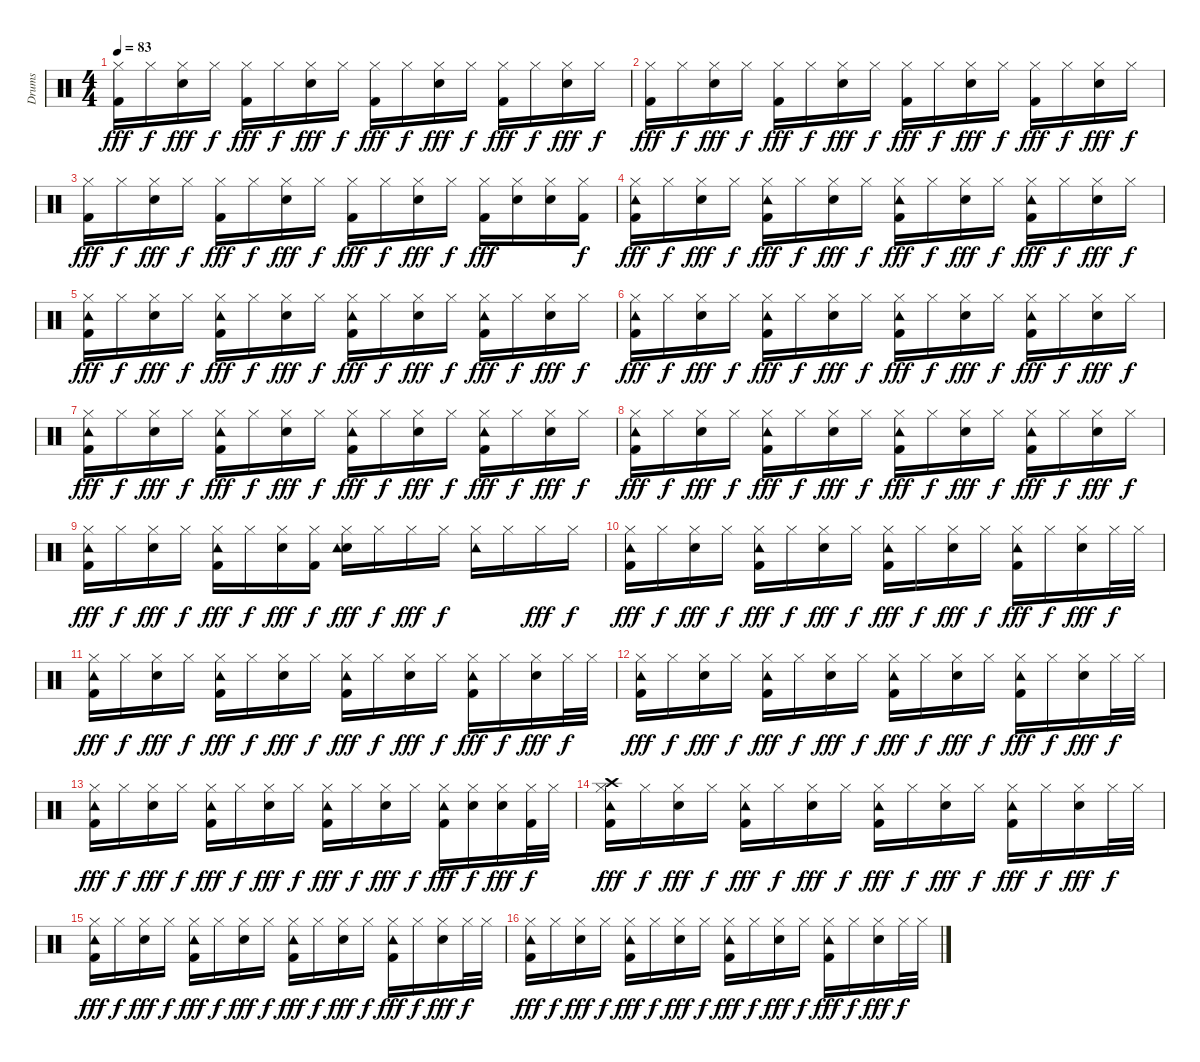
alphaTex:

\track ("Drums" "Drums") {instrument percussion}
\staff {score}
\articulation defaults
\ts (4 4)
\tempo 83
\clef neutral
\ks c
("Hi-Hat (closed)" "Kick (hit) 2").16{dy fff} "Hi-Hat (closed)".16{dy f} ("Hi-Hat (closed)" "Electric Snare (hit)").16{dy fff} "Hi-Hat (closed)".16{dy f} ("Hi-Hat (closed)" "Kick (hit) 2").16{dy fff} "Hi-Hat (closed)".16{dy f} ("Hi-Hat (closed)" "Electric Snare (hit)").16{dy fff} "Hi-Hat (closed)".16{dy f} ("Hi-Hat (closed)" "Kick (hit) 2").16{dy fff} "Hi-Hat (closed)".16{dy f} ("Hi-Hat (closed)" "Electric Snare (hit)").16{dy fff} "Hi-Hat (closed)".16{dy f} ("Hi-Hat (closed)" "Kick (hit) 2").16{dy fff} "Hi-Hat (closed)".16{dy f} ("Hi-Hat (closed)" "Electric Snare (hit)").16{dy fff} "Hi-Hat (closed)".16{dy f} |
("Hi-Hat (closed)" "Kick (hit) 2").16{dy fff} "Hi-Hat (closed)".16{dy f} ("Hi-Hat (closed)" "Electric Snare (hit)").16{dy fff} "Hi-Hat (closed)".16{dy f} ("Hi-Hat (closed)" "Kick (hit) 2").16{dy fff} "Hi-Hat (closed)".16{dy f} ("Hi-Hat (closed)" "Electric Snare (hit)").16{dy fff} "Hi-Hat (closed)".16{dy f} ("Hi-Hat (closed)" "Kick (hit) 2").16{dy fff} "Hi-Hat (closed)".16{dy f} ("Hi-Hat (closed)" "Electric Snare (hit)").16{dy fff} "Hi-Hat (closed)".16{dy f} ("Hi-Hat (closed)" "Kick (hit) 2").16{dy fff} "Hi-Hat (closed)".16{dy f} ("Hi-Hat (closed)" "Electric Snare (hit)").16{dy fff} "Hi-Hat (closed)".16{dy f} |
("Hi-Hat (closed)" "Kick (hit) 2").16{dy fff} "Hi-Hat (closed)".16{dy f} ("Hi-Hat (closed)" "Electric Snare (hit)").16{dy fff} "Hi-Hat (closed)".16{dy f} ("Hi-Hat (closed)" "Kick (hit) 2").16{dy fff} "Hi-Hat (closed)".16{dy f} ("Hi-Hat (closed)" "Electric Snare (hit)").16{dy fff} "Hi-Hat (closed)".16{dy f} ("Hi-Hat (closed)" "Kick (hit) 2").16{dy fff} "Hi-Hat (closed)".16{dy f} ("Hi-Hat (closed)" "Electric Snare (hit)").16{dy fff} "Hi-Hat (closed)".16{dy f} ("Hi-Hat (closed)" "Kick (hit) 2").16{dy fff} ("Hi-Hat (closed)" "Electric Snare (hit)").16 ("Hi-Hat (closed)" "Electric Snare (hit)").16 ("Hi-Hat (closed)" "Kick (hit) 2").16{dy f} |
("Hi-Hat (closed)" "Kick (hit) 2" "Tambourine (hit)").16{dy fff} "Hi-Hat (closed)".16{dy f} ("Hi-Hat (closed)" "Electric Snare (hit)").16{dy fff} "Hi-Hat (closed)".16{dy f} ("Hi-Hat (closed)" "Kick (hit) 2" "Tambourine (hit)").16{dy fff} "Hi-Hat (closed)".16{dy f} ("Hi-Hat (closed)" "Electric Snare (hit)").16{dy fff} "Hi-Hat (closed)".16{dy f} ("Hi-Hat (closed)" "Kick (hit) 2" "Tambourine (hit)").16{dy fff} "Hi-Hat (closed)".16{dy f} ("Hi-Hat (closed)" "Electric Snare (hit)").16{dy fff} "Hi-Hat (closed)".16{dy f} ("Hi-Hat (closed)" "Kick (hit) 2" "Tambourine (hit)").16{dy fff} "Hi-Hat (closed)".16{dy f} ("Hi-Hat (closed)" "Electric Snare (hit)").16{dy fff} "Hi-Hat (closed)".16{dy f} |
("Hi-Hat (closed)" "Kick (hit) 2" "Tambourine (hit)").16{dy fff} "Hi-Hat (closed)".16{dy f} ("Hi-Hat (closed)" "Electric Snare (hit)").16{dy fff} "Hi-Hat (closed)".16{dy f} ("Hi-Hat (closed)" "Kick (hit) 2" "Tambourine (hit)").16{dy fff} "Hi-Hat (closed)".16{dy f} ("Hi-Hat (closed)" "Electric Snare (hit)").16{dy fff} "Hi-Hat (closed)".16{dy f} ("Hi-Hat (closed)" "Kick (hit) 2" "Tambourine (hit)").16{dy fff} "Hi-Hat (closed)".16{dy f} ("Hi-Hat (closed)" "Electric Snare (hit)").16{dy fff} "Hi-Hat (closed)".16{dy f} ("Hi-Hat (closed)" "Kick (hit) 2" "Tambourine (hit)").16{dy fff} "Hi-Hat (closed)".16{dy f} ("Hi-Hat (closed)" "Electric Snare (hit)").16{dy fff} "Hi-Hat (closed)".16{dy f} |
("Hi-Hat (closed)" "Kick (hit) 2" "Tambourine (hit)").16{dy fff} "Hi-Hat (closed)".16{dy f} ("Hi-Hat (closed)" "Electric Snare (hit)").16{dy fff} "Hi-Hat (closed)".16{dy f} ("Hi-Hat (closed)" "Kick (hit) 2" "Tambourine (hit)").16{dy fff} "Hi-Hat (closed)".16{dy f} ("Hi-Hat (closed)" "Electric Snare (hit)").16{dy fff} "Hi-Hat (closed)".16{dy f} ("Hi-Hat (closed)" "Kick (hit) 2" "Tambourine (hit)").16{dy fff} "Hi-Hat (closed)".16{dy f} ("Hi-Hat (closed)" "Electric Snare (hit)").16{dy fff} "Hi-Hat (closed)".16{dy f} ("Hi-Hat (closed)" "Kick (hit) 2" "Tambourine (hit)").16{dy fff} "Hi-Hat (closed)".16{dy f} ("Hi-Hat (closed)" "Electric Snare (hit)").16{dy fff} "Hi-Hat (closed)".16{dy f} |
("Hi-Hat (closed)" "Kick (hit) 2" "Tambourine (hit)").16{dy fff} "Hi-Hat (closed)".16{dy f} ("Hi-Hat (closed)" "Electric Snare (hit)").16{dy fff} "Hi-Hat (closed)".16{dy f} ("Hi-Hat (closed)" "Kick (hit) 2" "Tambourine (hit)").16{dy fff} "Hi-Hat (closed)".16{dy f} ("Hi-Hat (closed)" "Electric Snare (hit)").16{dy fff} "Hi-Hat (closed)".16{dy f} ("Hi-Hat (closed)" "Kick (hit) 2" "Tambourine (hit)").16{dy fff} "Hi-Hat (closed)".16{dy f} ("Hi-Hat (closed)" "Electric Snare (hit)").16{dy fff} "Hi-Hat (closed)".16{dy f} ("Hi-Hat (closed)" "Kick (hit) 2" "Tambourine (hit)").16{dy fff} "Hi-Hat (closed)".16{dy f} ("Hi-Hat (closed)" "Electric Snare (hit)").16{dy fff} "Hi-Hat (closed)".16{dy f} |
("Hi-Hat (closed)" "Kick (hit) 2" "Tambourine (hit)").16{dy fff} "Hi-Hat (closed)".16{dy f} ("Hi-Hat (closed)" "Electric Snare (hit)").16{dy fff} "Hi-Hat (closed)".16{dy f} ("Hi-Hat (closed)" "Kick (hit) 2" "Tambourine (hit)").16{dy fff} "Hi-Hat (closed)".16{dy f} ("Hi-Hat (closed)" "Electric Snare (hit)").16{dy fff} "Hi-Hat (closed)".16{dy f} ("Hi-Hat (closed)" "Kick (hit) 2" "Tambourine (hit)").16{dy fff} "Hi-Hat (closed)".16{dy f} ("Hi-Hat (closed)" "Electric Snare (hit)").16{dy fff} "Hi-Hat (closed)".16{dy f} ("Hi-Hat (closed)" "Kick (hit) 2" "Tambourine (hit)").16{dy fff} "Hi-Hat (closed)".16{dy f} ("Hi-Hat (closed)" "Electric Snare (hit)").16{dy fff} "Hi-Hat (closed)".16{dy f} |
("Hi-Hat (closed)" "Kick (hit) 2" "Tambourine (hit)").16{dy fff} "Hi-Hat (closed)".16{dy f} ("Hi-Hat (closed)" "Electric Snare (hit)").16{dy fff} "Hi-Hat (closed)".16{dy f} ("Hi-Hat (closed)" "Kick (hit) 2" "Tambourine (hit)").16{dy fff} "Hi-Hat (closed)".16{dy f} ("Hi-Hat (closed)" "Electric Snare (hit)").16{dy fff} ("Hi-Hat (closed)" "Kick (hit) 2").16{dy f} ("Hi-Hat (closed)" "Electric Snare (hit)" "Tambourine (hit)").16{dy fff} "Hi-Hat (closed)".16{dy f} "Hi-Hat (closed)".16{dy fff} "Hi-Hat (closed)".16{dy f} ("Hi-Hat (closed)" "Tambourine (hit)").16 "Hi-Hat (closed)".16 "Hi-Hat (closed)".16{dy fff} "Hi-Hat (closed)".16{dy f} |
("Hi-Hat (closed)" "Kick (hit) 2" "Tambourine (hit)").16{dy fff} "Hi-Hat (closed)".16{dy f} ("Hi-Hat (closed)" "Electric Snare (hit)").16{dy fff} "Hi-Hat (closed)".16{dy f} ("Hi-Hat (closed)" "Kick (hit) 2" "Tambourine (hit)").16{dy fff} "Hi-Hat (closed)".16{dy f} ("Hi-Hat (closed)" "Electric Snare (hit)").16{dy fff} "Hi-Hat (closed)".16{dy f} ("Hi-Hat (closed)" "Kick (hit) 2" "Tambourine (hit)").16{dy fff} "Hi-Hat (closed)".16{dy f} ("Hi-Hat (closed)" "Electric Snare (hit)").16{dy fff} "Hi-Hat (closed)".16{dy f} ("Hi-Hat (closed)" "Kick (hit) 2" "Tambourine (hit)").16{dy fff} "Hi-Hat (closed)".16{dy f} ("Hi-Hat (closed)" "Electric Snare (hit)").16{dy fff} "Hi-Hat (closed)".32{dy f} "Hi-Hat (closed)".32 |
("Hi-Hat (closed)" "Kick (hit) 2" "Tambourine (hit)").16{dy fff} "Hi-Hat (closed)".16{dy f} ("Hi-Hat (closed)" "Electric Snare (hit)").16{dy fff} "Hi-Hat (closed)".16{dy f} ("Hi-Hat (closed)" "Kick (hit) 2" "Tambourine (hit)").16{dy fff} "Hi-Hat (closed)".16{dy f} ("Hi-Hat (closed)" "Electric Snare (hit)").16{dy fff} "Hi-Hat (closed)".16{dy f} ("Hi-Hat (closed)" "Kick (hit) 2" "Tambourine (hit)").16{dy fff} "Hi-Hat (closed)".16{dy f} ("Hi-Hat (closed)" "Electric Snare (hit)").16{dy fff} "Hi-Hat (closed)".16{dy f} ("Hi-Hat (closed)" "Kick (hit) 2" "Tambourine (hit)").16{dy fff} "Hi-Hat (closed)".16{dy f} ("Hi-Hat (closed)" "Electric Snare (hit)").16{dy fff} "Hi-Hat (closed)".32{dy f} "Hi-Hat (closed)".32 |
("Hi-Hat (closed)" "Kick (hit) 2" "Tambourine (hit)").16{dy fff} "Hi-Hat (closed)".16{dy f} ("Hi-Hat (closed)" "Electric Snare (hit)").16{dy fff} "Hi-Hat (closed)".16{dy f} ("Hi-Hat (closed)" "Kick (hit) 2" "Tambourine (hit)").16{dy fff} "Hi-Hat (closed)".16{dy f} ("Hi-Hat (closed)" "Electric Snare (hit)").16{dy fff} "Hi-Hat (closed)".16{dy f} ("Hi-Hat (closed)" "Kick (hit) 2" "Tambourine (hit)").16{dy fff} "Hi-Hat (closed)".16{dy f} ("Hi-Hat (closed)" "Electric Snare (hit)").16{dy fff} "Hi-Hat (closed)".16{dy f} ("Hi-Hat (closed)" "Kick (hit) 2" "Tambourine (hit)").16{dy fff} "Hi-Hat (closed)".16{dy f} ("Hi-Hat (closed)" "Electric Snare (hit)").16{dy fff} "Hi-Hat (closed)".32{dy f} "Hi-Hat (closed)".32 |
("Hi-Hat (closed)" "Kick (hit) 2" "Tambourine (hit)").16{dy fff} "Hi-Hat (closed)".16{dy f} ("Hi-Hat (closed)" "Electric Snare (hit)").16{dy fff} "Hi-Hat (closed)".16{dy f} ("Hi-Hat (closed)" "Kick (hit) 2" "Tambourine (hit)").16{dy fff} "Hi-Hat (closed)".16{dy f} ("Hi-Hat (closed)" "Electric Snare (hit)").16{dy fff} "Hi-Hat (closed)".16{dy f} ("Hi-Hat (closed)" "Kick (hit) 2" "Tambourine (hit)").16{dy fff} "Hi-Hat (closed)".16{dy f} ("Hi-Hat (closed)" "Electric Snare (hit)").16{dy fff} "Hi-Hat (closed)".16{dy f} ("Hi-Hat (closed)" "Kick (hit) 2" "Tambourine (hit)").16{dy fff} ("Hi-Hat (closed)" "Electric Snare (hit)").16{dy f} ("Hi-Hat (closed)" "Electric Snare (hit)").16{dy fff} ("Hi-Hat (closed)" "Kick (hit) 2").32{dy f} "Hi-Hat (closed)".32 |
("Hi-Hat (closed)" "Kick (hit) 2" "Tambourine (hit)" "Crash high (hit)").16{dy fff} "Hi-Hat (closed)".16{dy f} ("Hi-Hat (closed)" "Electric Snare (hit)").16{dy fff} "Hi-Hat (closed)".16{dy f} ("Hi-Hat (closed)" "Kick (hit) 2" "Tambourine (hit)").16{dy fff} "Hi-Hat (closed)".16{dy f} ("Hi-Hat (closed)" "Electric Snare (hit)").16{dy fff} "Hi-Hat (closed)".16{dy f} ("Hi-Hat (closed)" "Kick (hit) 2" "Tambourine (hit)").16{dy fff} "Hi-Hat (closed)".16{dy f} ("Hi-Hat (closed)" "Electric Snare (hit)").16{dy fff} "Hi-Hat (closed)".16{dy f} ("Hi-Hat (closed)" "Kick (hit) 2" "Tambourine (hit)").16{dy fff} "Hi-Hat (closed)".16{dy f} ("Hi-Hat (closed)" "Electric Snare (hit)").16{dy fff} "Hi-Hat (closed)".32{dy f} "Hi-Hat (closed)".32 |
("Hi-Hat (closed)" "Kick (hit) 2" "Tambourine (hit)").16{dy fff} "Hi-Hat (closed)".16{dy f} ("Hi-Hat (closed)" "Electric Snare (hit)").16{dy fff} "Hi-Hat (closed)".16{dy f} ("Hi-Hat (closed)" "Kick (hit) 2" "Tambourine (hit)").16{dy fff} "Hi-Hat (closed)".16{dy f} ("Hi-Hat (closed)" "Electric Snare (hit)").16{dy fff} "Hi-Hat (closed)".16{dy f} ("Hi-Hat (closed)" "Kick (hit) 2" "Tambourine (hit)").16{dy fff} "Hi-Hat (closed)".16{dy f} ("Hi-Hat (closed)" "Electric Snare (hit)").16{dy fff} "Hi-Hat (closed)".16{dy f} ("Hi-Hat (closed)" "Kick (hit) 2" "Tambourine (hit)").16{dy fff} "Hi-Hat (closed)".16{dy f} ("Hi-Hat (closed)" "Electric Snare (hit)").16{dy fff} "Hi-Hat (closed)".32{dy f} "Hi-Hat (closed)".32 |
("Hi-Hat (closed)" "Kick (hit) 2" "Tambourine (hit)").16{dy fff} "Hi-Hat (closed)".16{dy f} ("Hi-Hat (closed)" "Electric Snare (hit)").16{dy fff} "Hi-Hat (closed)".16{dy f} ("Hi-Hat (closed)" "Kick (hit) 2" "Tambourine (hit)").16{dy fff} "Hi-Hat (closed)".16{dy f} ("Hi-Hat (closed)" "Electric Snare (hit)").16{dy fff} "Hi-Hat (closed)".16{dy f} ("Hi-Hat (closed)" "Kick (hit) 2" "Tambourine (hit)").16{dy fff} "Hi-Hat (closed)".16{dy f} ("Hi-Hat (closed)" "Electric Snare (hit)").16{dy fff} "Hi-Hat (closed)".16{dy f} ("Hi-Hat (closed)" "Kick (hit) 2" "Tambourine (hit)").16{dy fff} "Hi-Hat (closed)".16{dy f} ("Hi-Hat (closed)" "Electric Snare (hit)").16{dy fff} "Hi-Hat (closed)".32{dy f} "Hi-Hat (closed)".32
